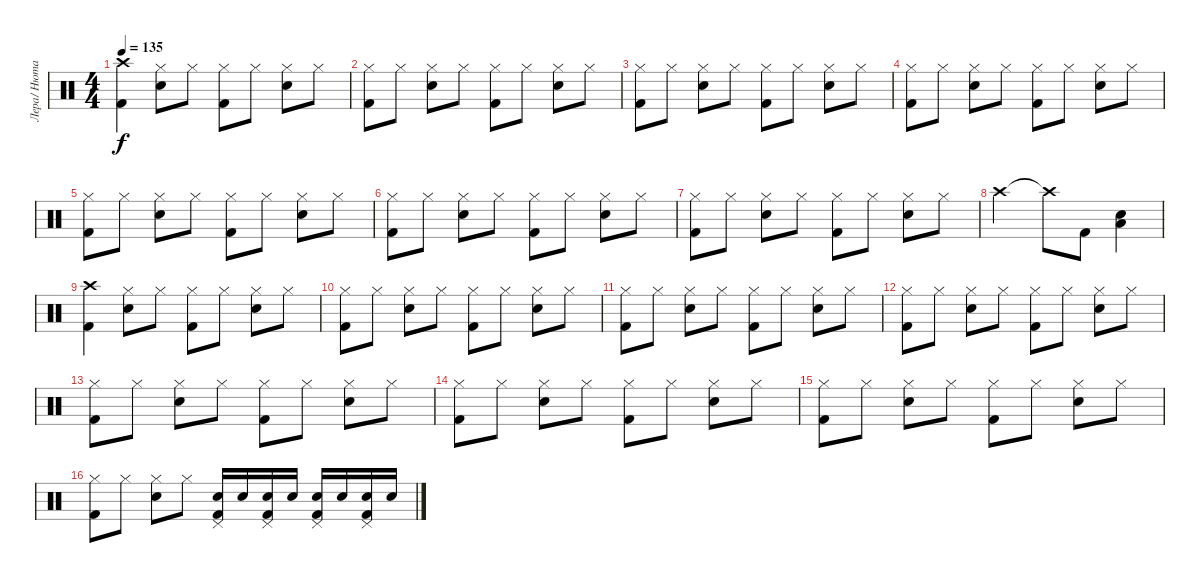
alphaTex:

\track ("Лера/ Нюта" "Лера/ Нюта") {instrument percussion}
\staff {score}
\articulation defaults
\ts (4 4)
\tempo 135
\clef neutral
\ks c
("Crash high (hit)" "Kick (hit) 2").4{dy f} ("Hi-Hat (closed)" "Electric Snare (hit)").8 "Hi-Hat (closed)".8 ("Hi-Hat (closed)" "Kick (hit) 2").8 "Hi-Hat (closed)".8 ("Hi-Hat (closed)" "Electric Snare (hit)").8 "Hi-Hat (closed)".8 |
("Hi-Hat (closed)" "Kick (hit) 2").8 "Hi-Hat (closed)".8 ("Hi-Hat (closed)" "Electric Snare (hit)").8 "Hi-Hat (closed)".8 ("Hi-Hat (closed)" "Kick (hit) 2").8 "Hi-Hat (closed)".8 ("Hi-Hat (closed)" "Electric Snare (hit)").8 "Hi-Hat (closed)".8 |
("Hi-Hat (closed)" "Kick (hit) 2").8 "Hi-Hat (closed)".8 ("Hi-Hat (closed)" "Electric Snare (hit)").8 "Hi-Hat (closed)".8 ("Hi-Hat (closed)" "Kick (hit) 2").8 "Hi-Hat (closed)".8 ("Hi-Hat (closed)" "Electric Snare (hit)").8 "Hi-Hat (closed)".8 |
("Hi-Hat (closed)" "Kick (hit) 2").8 "Hi-Hat (closed)".8 ("Hi-Hat (closed)" "Electric Snare (hit)").8 "Hi-Hat (closed)".8 ("Hi-Hat (closed)" "Kick (hit) 2").8 "Hi-Hat (closed)".8 ("Hi-Hat (closed)" "Electric Snare (hit)").8 "Hi-Hat (closed)".8 |
("Hi-Hat (closed)" "Kick (hit) 2").8 "Hi-Hat (closed)".8 ("Hi-Hat (closed)" "Electric Snare (hit)").8 "Hi-Hat (closed)".8 ("Hi-Hat (closed)" "Kick (hit) 2").8 "Hi-Hat (closed)".8 ("Hi-Hat (closed)" "Electric Snare (hit)").8 "Hi-Hat (closed)".8 |
("Hi-Hat (closed)" "Kick (hit) 2").8 "Hi-Hat (closed)".8 ("Hi-Hat (closed)" "Electric Snare (hit)").8 "Hi-Hat (closed)".8 ("Hi-Hat (closed)" "Kick (hit) 2").8 "Hi-Hat (closed)".8 ("Hi-Hat (closed)" "Electric Snare (hit)").8 "Hi-Hat (closed)".8 |
("Hi-Hat (closed)" "Kick (hit) 2").8 "Hi-Hat (closed)".8 ("Hi-Hat (closed)" "Electric Snare (hit)").8 "Hi-Hat (closed)".8 ("Hi-Hat (closed)" "Kick (hit) 2").8 "Hi-Hat (closed)".8 ("Hi-Hat (closed)" "Electric Snare (hit)").8 "Hi-Hat (closed)".8 |
"Crash high (hit)".2 "Crash high (hit)"{t}.8 "Kick (hit) 2".8 ("Electric Snare (hit)" "Low Tom (hit)").4 |
("Crash high (hit)" "Kick (hit) 2").4 ("Hi-Hat (closed)" "Electric Snare (hit)").8 "Hi-Hat (closed)".8 ("Hi-Hat (closed)" "Kick (hit) 2").8 "Hi-Hat (closed)".8 ("Hi-Hat (closed)" "Electric Snare (hit)").8 "Hi-Hat (closed)".8 |
("Hi-Hat (closed)" "Kick (hit) 2").8 "Hi-Hat (closed)".8 ("Hi-Hat (closed)" "Electric Snare (hit)").8 "Hi-Hat (closed)".8 ("Hi-Hat (closed)" "Kick (hit) 2").8 "Hi-Hat (closed)".8 ("Hi-Hat (closed)" "Electric Snare (hit)").8 "Hi-Hat (closed)".8 |
("Hi-Hat (closed)" "Kick (hit) 2").8 "Hi-Hat (closed)".8 ("Hi-Hat (closed)" "Electric Snare (hit)").8 "Hi-Hat (closed)".8 ("Hi-Hat (closed)" "Kick (hit) 2").8 "Hi-Hat (closed)".8 ("Hi-Hat (closed)" "Electric Snare (hit)").8 "Hi-Hat (closed)".8 |
("Hi-Hat (closed)" "Kick (hit) 2").8 "Hi-Hat (closed)".8 ("Hi-Hat (closed)" "Electric Snare (hit)").8 "Hi-Hat (closed)".8 ("Hi-Hat (closed)" "Kick (hit) 2").8 "Hi-Hat (closed)".8 ("Hi-Hat (closed)" "Electric Snare (hit)").8 "Hi-Hat (closed)".8 |
("Hi-Hat (closed)" "Kick (hit) 2").8 "Hi-Hat (closed)".8 ("Hi-Hat (closed)" "Electric Snare (hit)").8 "Hi-Hat (closed)".8 ("Hi-Hat (closed)" "Kick (hit) 2").8 "Hi-Hat (closed)".8 ("Hi-Hat (closed)" "Electric Snare (hit)").8 "Hi-Hat (closed)".8 |
("Hi-Hat (closed)" "Kick (hit) 2").8 "Hi-Hat (closed)".8 ("Hi-Hat (closed)" "Electric Snare (hit)").8 "Hi-Hat (closed)".8 ("Hi-Hat (closed)" "Kick (hit) 2").8 "Hi-Hat (closed)".8 ("Hi-Hat (closed)" "Electric Snare (hit)").8 "Hi-Hat (closed)".8 |
("Hi-Hat (closed)" "Kick (hit) 2").8 "Hi-Hat (closed)".8 ("Hi-Hat (closed)" "Electric Snare (hit)").8 "Hi-Hat (closed)".8 ("Hi-Hat (closed)" "Kick (hit) 2").8 "Hi-Hat (closed)".8 ("Hi-Hat (closed)" "Electric Snare (hit)").8 "Hi-Hat (closed)".8 |
("Hi-Hat (closed)" "Kick (hit) 2").8 "Hi-Hat (closed)".8 ("Hi-Hat (closed)" "Electric Snare (hit)").8 "Hi-Hat (closed)".8 ("Electric Snare (hit)" "Kick (hit) 2" "Pedal Hi-Hat (hit)").16 "Electric Snare (hit)".16 ("Electric Snare (hit)" "Kick (hit) 2" "Pedal Hi-Hat (hit)").16 "Electric Snare (hit)".16 ("Electric Snare (hit)" "Kick (hit) 2" "Pedal Hi-Hat (hit)").16 "Electric Snare (hit)".16 ("Electric Snare (hit)" "Kick (hit) 2" "Pedal Hi-Hat (hit)").16 "Electric Snare (hit)".16
